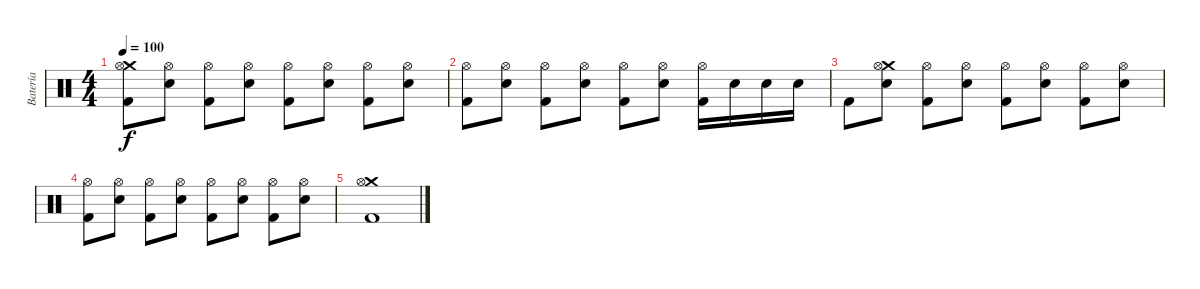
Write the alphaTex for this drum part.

\track ("Batería" "Batería") {instrument percussion}
\staff {score}
\articulation defaults
\ts (4 4)
\tempo 100
\clef neutral
\ks c
("Crash medium (hit)" "Hi-Hat (open)" "Kick (hit) 2").8{dy f} ("Hi-Hat (open)" "Snare (hit) 2").8 ("Hi-Hat (open)" "Kick (hit) 2").8 ("Hi-Hat (open)" "Snare (hit) 2").8 ("Hi-Hat (open)" "Kick (hit) 2").8 ("Hi-Hat (open)" "Snare (hit) 2").8 ("Hi-Hat (open)" "Kick (hit) 2").8 ("Hi-Hat (open)" "Snare (hit) 2").8 |
("Hi-Hat (open)" "Kick (hit) 2").8 ("Hi-Hat (open)" "Snare (hit) 2").8 ("Hi-Hat (open)" "Kick (hit) 2").8 ("Hi-Hat (open)" "Snare (hit) 2").8 ("Hi-Hat (open)" "Kick (hit) 2").8 ("Hi-Hat (open)" "Snare (hit) 2").8 ("Hi-Hat (open)" "Kick (hit) 2").16 "Snare (hit) 2".16 "Snare (hit) 2".16 "Snare (hit) 2".16 |
"Kick (hit) 2".8 ("Crash medium (hit)" "Hi-Hat (open)" "Snare (hit) 2").8 ("Hi-Hat (open)" "Kick (hit) 2").8 ("Hi-Hat (open)" "Snare (hit) 2").8 ("Hi-Hat (open)" "Kick (hit) 2").8 ("Hi-Hat (open)" "Snare (hit) 2").8 ("Hi-Hat (open)" "Kick (hit) 2").8 ("Hi-Hat (open)" "Snare (hit) 2").8 |
("Hi-Hat (open)" "Kick (hit) 2").8 ("Hi-Hat (open)" "Snare (hit) 2").8 ("Hi-Hat (open)" "Kick (hit) 2").8 ("Hi-Hat (open)" "Snare (hit) 2").8 ("Hi-Hat (open)" "Kick (hit) 2").8 ("Hi-Hat (open)" "Snare (hit) 2").8 ("Hi-Hat (open)" "Kick (hit) 2").8 ("Hi-Hat (open)" "Snare (hit) 2").8 |
("Crash medium (hit)" "Hi-Hat (open)" "Kick (hit) 2").1
